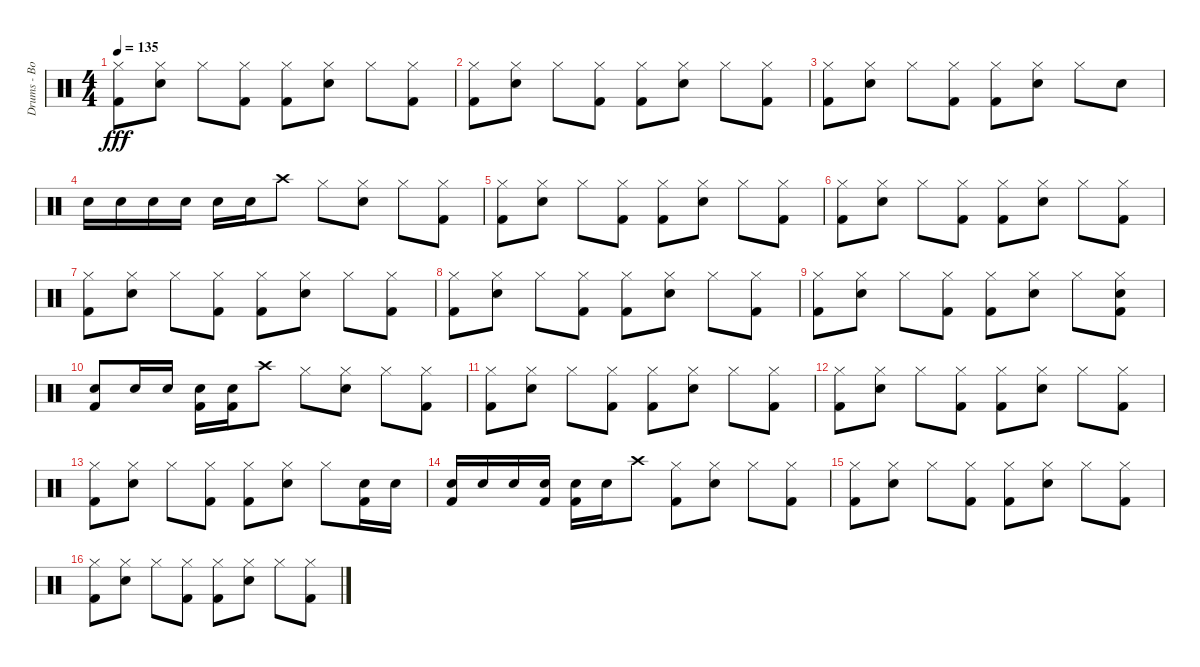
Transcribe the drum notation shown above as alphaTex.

\track ("Drums - Bobby Schayer" "Drums - Bo") {instrument percussion}
\staff {score}
\articulation defaults
\ts (4 4)
\tempo 135
\clef neutral
\ks c
("Hi-Hat (closed)" "Kick (hit) 2").8{dy fff} ("Hi-Hat (closed)" "Electric Snare (hit)").8 "Hi-Hat (closed)".8 ("Hi-Hat (closed)" "Kick (hit) 2").8 ("Hi-Hat (closed)" "Kick (hit) 2").8 ("Hi-Hat (closed)" "Electric Snare (hit)").8 "Hi-Hat (closed)".8 ("Hi-Hat (closed)" "Kick (hit) 2").8 |
("Hi-Hat (closed)" "Kick (hit) 2").8 ("Hi-Hat (closed)" "Electric Snare (hit)").8 "Hi-Hat (closed)".8 ("Hi-Hat (closed)" "Kick (hit) 2").8 ("Hi-Hat (closed)" "Kick (hit) 2").8 ("Hi-Hat (closed)" "Electric Snare (hit)").8 "Hi-Hat (closed)".8 ("Hi-Hat (closed)" "Kick (hit) 2").8 |
("Hi-Hat (closed)" "Kick (hit) 2").8 ("Hi-Hat (closed)" "Electric Snare (hit)").8 "Hi-Hat (closed)".8 ("Hi-Hat (closed)" "Kick (hit) 2").8 ("Hi-Hat (closed)" "Kick (hit) 2").8 ("Hi-Hat (closed)" "Electric Snare (hit)").8 "Hi-Hat (closed)".8 "Electric Snare (hit)".8 |
"Electric Snare (hit)".16 "Electric Snare (hit)".16 "Electric Snare (hit)".16 "Electric Snare (hit)".16 "Electric Snare (hit)".16 "Electric Snare (hit)".16 "Crash high (hit)".8 "Hi-Hat (closed)".8 ("Hi-Hat (closed)" "Electric Snare (hit)").8 "Hi-Hat (closed)".8 ("Hi-Hat (closed)" "Kick (hit) 2").8 |
("Hi-Hat (closed)" "Kick (hit) 2").8 ("Hi-Hat (closed)" "Electric Snare (hit)").8 "Hi-Hat (closed)".8 ("Hi-Hat (closed)" "Kick (hit) 2").8 ("Hi-Hat (closed)" "Kick (hit) 2").8 ("Hi-Hat (closed)" "Electric Snare (hit)").8 "Hi-Hat (closed)".8 ("Hi-Hat (closed)" "Kick (hit) 2").8 |
("Hi-Hat (closed)" "Kick (hit) 2").8 ("Hi-Hat (closed)" "Electric Snare (hit)").8 "Hi-Hat (closed)".8 ("Hi-Hat (closed)" "Kick (hit) 2").8 ("Hi-Hat (closed)" "Kick (hit) 2").8 ("Hi-Hat (closed)" "Electric Snare (hit)").8 "Hi-Hat (closed)".8 ("Hi-Hat (closed)" "Kick (hit) 2").8 |
("Hi-Hat (closed)" "Kick (hit) 2").8 ("Hi-Hat (closed)" "Electric Snare (hit)").8 "Hi-Hat (closed)".8 ("Hi-Hat (closed)" "Kick (hit) 2").8 ("Hi-Hat (closed)" "Kick (hit) 2").8 ("Hi-Hat (closed)" "Electric Snare (hit)").8 "Hi-Hat (closed)".8 ("Hi-Hat (closed)" "Kick (hit) 2").8 |
("Hi-Hat (closed)" "Kick (hit) 2").8 ("Hi-Hat (closed)" "Electric Snare (hit)").8 "Hi-Hat (closed)".8 ("Hi-Hat (closed)" "Kick (hit) 2").8 ("Hi-Hat (closed)" "Kick (hit) 2").8 ("Hi-Hat (closed)" "Electric Snare (hit)").8 "Hi-Hat (closed)".8 ("Hi-Hat (closed)" "Kick (hit) 2").8 |
("Hi-Hat (closed)" "Kick (hit) 2").8 ("Hi-Hat (closed)" "Electric Snare (hit)").8 "Hi-Hat (closed)".8 ("Hi-Hat (closed)" "Kick (hit) 2").8 ("Hi-Hat (closed)" "Kick (hit) 2").8 ("Hi-Hat (closed)" "Electric Snare (hit)").8 "Hi-Hat (closed)".8 ("Hi-Hat (closed)" "Electric Snare (hit)" "Kick (hit) 2").8 |
("Electric Snare (hit)" "Kick (hit) 2").8 "Electric Snare (hit)".16 "Electric Snare (hit)".16 ("Electric Snare (hit)" "Kick (hit) 2").16 ("Electric Snare (hit)" "Kick (hit) 2").16 "Crash high (hit)".8 "Hi-Hat (closed)".8 ("Hi-Hat (closed)" "Electric Snare (hit)").8 "Hi-Hat (closed)".8 ("Hi-Hat (closed)" "Kick (hit) 2").8 |
("Hi-Hat (closed)" "Kick (hit) 2").8 ("Hi-Hat (closed)" "Electric Snare (hit)").8 "Hi-Hat (closed)".8 ("Hi-Hat (closed)" "Kick (hit) 2").8 ("Hi-Hat (closed)" "Kick (hit) 2").8 ("Hi-Hat (closed)" "Electric Snare (hit)").8 "Hi-Hat (closed)".8 ("Hi-Hat (closed)" "Kick (hit) 2").8 |
("Hi-Hat (closed)" "Kick (hit) 2").8 ("Hi-Hat (closed)" "Electric Snare (hit)").8 "Hi-Hat (closed)".8 ("Hi-Hat (closed)" "Kick (hit) 2").8 ("Hi-Hat (closed)" "Kick (hit) 2").8 ("Hi-Hat (closed)" "Electric Snare (hit)").8 "Hi-Hat (closed)".8 ("Hi-Hat (closed)" "Kick (hit) 2").8 |
("Hi-Hat (closed)" "Kick (hit) 2").8 ("Hi-Hat (closed)" "Electric Snare (hit)").8 "Hi-Hat (closed)".8 ("Hi-Hat (closed)" "Kick (hit) 2").8 ("Hi-Hat (closed)" "Kick (hit) 2").8 ("Hi-Hat (closed)" "Electric Snare (hit)").8 "Hi-Hat (closed)".8 ("Electric Snare (hit)" "Kick (hit) 2").16 "Electric Snare (hit)".16 |
("Electric Snare (hit)" "Kick (hit) 2").16 "Electric Snare (hit)".16 "Electric Snare (hit)".16 ("Electric Snare (hit)" "Kick (hit) 2").16 ("Electric Snare (hit)" "Kick (hit) 2").16 "Electric Snare (hit)".16 "Crash high (hit)".8 ("Hi-Hat (closed)" "Kick (hit) 2").8 ("Hi-Hat (closed)" "Electric Snare (hit)").8 "Hi-Hat (closed)".8 ("Hi-Hat (closed)" "Kick (hit) 2").8 |
("Hi-Hat (closed)" "Kick (hit) 2").8 ("Hi-Hat (closed)" "Electric Snare (hit)").8 "Hi-Hat (closed)".8 ("Hi-Hat (closed)" "Kick (hit) 2").8 ("Hi-Hat (closed)" "Kick (hit) 2").8 ("Hi-Hat (closed)" "Electric Snare (hit)").8 "Hi-Hat (closed)".8 ("Hi-Hat (closed)" "Kick (hit) 2").8 |
("Hi-Hat (closed)" "Kick (hit) 2").8 ("Hi-Hat (closed)" "Electric Snare (hit)").8 "Hi-Hat (closed)".8 ("Hi-Hat (closed)" "Kick (hit) 2").8 ("Hi-Hat (closed)" "Kick (hit) 2").8 ("Hi-Hat (closed)" "Electric Snare (hit)").8 "Hi-Hat (closed)".8 ("Hi-Hat (closed)" "Kick (hit) 2").8
